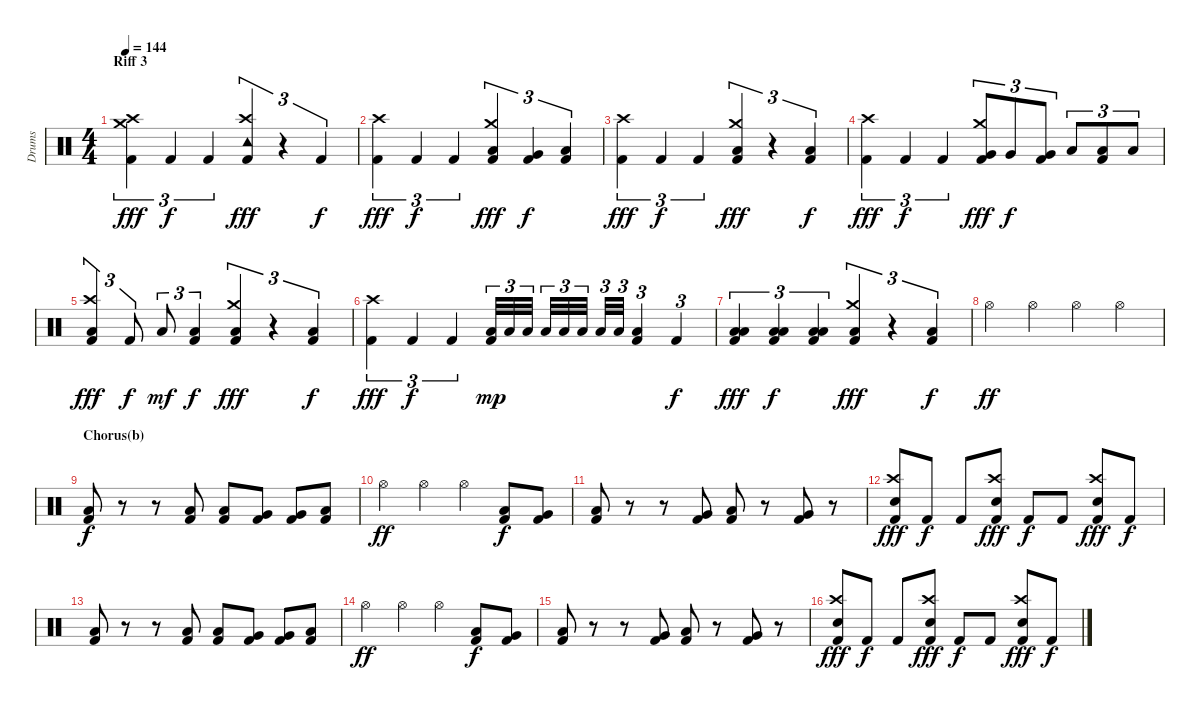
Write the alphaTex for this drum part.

\track ("Drums" "Drums") {instrument percussion}
\staff {score}
\articulation defaults
\ts (4 4)
\section ("" "Riff 3")
\tempo 144
\clef neutral
\ks c
("Kick (hit) 2" "Crash medium (hit)" "Crash high (hit)").4{tu (3 2) dy fff} "Kick (hit) 2".4{tu (3 2) dy f} "Kick (hit) 2".4{tu (3 2)} ("Kick (hit) 2" "Tambourine (hit)" "Crash high (hit)").4{tu (3 2) dy fff} r.4{tu (3 2)} "Kick (hit) 2".4{tu (3 2) dy f} |
("Kick (hit) 2" "Crash high (hit)").4{tu (3 2) dy fff} "Kick (hit) 2".4{tu (3 2) dy f} "Kick (hit) 2".4{tu (3 2)} ("Kick (hit) 2" "Low Tom (hit)" "Crash medium (hit)").4{tu (3 2) dy fff} ("Kick (hit) 2" "Very Low Tom (hit)").4{tu (3 2) dy f} ("Kick (hit) 2" "Low Floor Tom (hit)").4{tu (3 2)} |
("Kick (hit) 2" "Crash high (hit)").4{tu (3 2) dy fff} "Kick (hit) 2".4{tu (3 2) dy f} "Kick (hit) 2".4{tu (3 2)} ("Kick (hit) 2" "Low Floor Tom (hit)" "Crash medium (hit)").4{tu (3 2) dy fff} r.4{tu (3 2)} ("Kick (hit) 2" "Low Tom (hit)").4{tu (3 2) dy f} |
("Kick (hit) 2" "Crash high (hit)").4{tu (3 2) dy fff} "Kick (hit) 2".4{tu (3 2) dy f} "Kick (hit) 2".4{tu (3 2)} ("Kick (hit) 2" "Very Low Tom (hit)" "Crash medium (hit)").8{tu (3 2) dy fff} "Very Low Tom (hit)".8{tu (3 2) dy f} ("Kick (hit) 2" "Very Low Tom (hit)").8{tu (3 2)} "Low Tom (hit)".8{tu (3 2)} ("Kick (hit) 2" "Low Tom (hit)").8{tu (3 2)} "Low Tom (hit)".8{tu (3 2)} |
("Kick (hit) 2" "Low Floor Tom (hit)" "Crash high (hit)").4{tu (3 2) dy fff} "Kick (hit) 2".8{tu (3 2) dy f} "Low Tom (hit)".8{tu (3 2) dy mf} ("Kick (hit) 2" "Low Tom (hit)").4{tu (3 2) dy f} ("Kick (hit) 2" "Low Tom (hit)" "Crash medium (hit)").4{tu (3 2) dy fff} r.4{tu (3 2)} ("Kick (hit) 2" "Low Floor Tom (hit)").4{tu (3 2) dy f} |
("Kick (hit) 2" "Crash high (hit)").4{tu (3 2) dy fff} "Kick (hit) 2".4{tu (3 2) dy f} "Kick (hit) 2".4{tu (3 2)} ("Kick (hit) 2" "Low Tom (hit)").32{tu (3 2) dy mp} "Low Tom (hit)".32{tu (3 2)} "Low Tom (hit)".32{tu (3 2)} "Low Tom (hit)".32{tu (3 2)} "Low Tom (hit)".32{tu (3 2)} "Low Tom (hit)".32{tu (3 2)} "Low Tom (hit)".32{tu (3 2)} "Low Tom (hit)".32{tu (3 2)} ("Kick (hit) 2" "Low Tom (hit)").4{tu (3 2)} "Kick (hit) 2".4{tu (3 2) dy f} |
("Kick (hit) 2" "Low Floor Tom (hit)" "Low Tom (hit)").4{tu (3 2) dy fff} ("Kick (hit) 2" "Low Floor Tom (hit)" "Low Tom (hit)").4{tu (3 2) dy f} ("Kick (hit) 2" "Low Floor Tom (hit)" "Low Tom (hit)").4{tu (3 2)} ("Kick (hit) 2" "Low Floor Tom (hit)" "Crash medium (hit)").4{tu (3 2) dy fff} r.4{tu (3 2)} ("Kick (hit) 2" "Low Tom (hit)").4{tu (3 2) dy f} |
"Hi-Hat (open)".4{dy ff} "Hi-Hat (open)".4 "Hi-Hat (open)".4 "Hi-Hat (open)".4 |
\section ("" "Chorus(b)")
("Kick (hit) 2" "Low Tom (hit)").8{dy f} r.8 r.8 ("Kick (hit) 2" "Low Tom (hit)").8 ("Kick (hit) 2" "Low Tom (hit)").8 ("Kick (hit) 2" "Very Low Tom (hit)").8 ("Kick (hit) 2" "Very Low Tom (hit)").8 ("Kick (hit) 2" "Low Floor Tom (hit)").8 |
"Hi-Hat (open)".4{dy ff} "Hi-Hat (open)".4 "Hi-Hat (open)".4 ("Kick (hit) 2" "Low Tom (hit)").8{dy f} ("Kick (hit) 2" "Very Low Tom (hit)").8 |
("Kick (hit) 2" "Low Floor Tom (hit)").8 r.8 r.8 ("Kick (hit) 2" "Very Low Tom (hit)").8 ("Kick (hit) 2" "Low Tom (hit)").8 r.8 ("Kick (hit) 2" "Very Low Tom (hit)").8 r.8 |
("Kick (hit) 2" "Electric Snare (hit)" "Crash high (hit)").8{dy fff} "Kick (hit) 2".8{dy f} "Kick (hit) 2".8 ("Kick (hit) 2" "Electric Snare (hit)" "Crash high (hit)").8{dy fff} "Kick (hit) 2".8{dy f} "Kick (hit) 2".8 ("Kick (hit) 2" "Electric Snare (hit)" "Crash high (hit)").8{dy fff} "Kick (hit) 2".8{dy f} |
("Kick (hit) 2" "Low Tom (hit)").8 r.8 r.8 ("Kick (hit) 2" "Low Tom (hit)").8 ("Kick (hit) 2" "Low Tom (hit)").8 ("Kick (hit) 2" "Very Low Tom (hit)").8 ("Kick (hit) 2" "Very Low Tom (hit)").8 ("Kick (hit) 2" "Low Floor Tom (hit)").8 |
"Hi-Hat (open)".4{dy ff} "Hi-Hat (open)".4 "Hi-Hat (open)".4 ("Kick (hit) 2" "Low Tom (hit)").8{dy f} ("Kick (hit) 2" "Very Low Tom (hit)").8 |
("Kick (hit) 2" "Low Floor Tom (hit)").8 r.8 r.8 ("Kick (hit) 2" "Very Low Tom (hit)").8 ("Kick (hit) 2" "Low Tom (hit)").8 r.8 ("Kick (hit) 2" "Very Low Tom (hit)").8 r.8 |
("Kick (hit) 2" "Electric Snare (hit)" "Crash high (hit)").8{dy fff} "Kick (hit) 2".8{dy f} "Kick (hit) 2".8 ("Kick (hit) 2" "Electric Snare (hit)" "Crash high (hit)").8{dy fff} "Kick (hit) 2".8{dy f} "Kick (hit) 2".8 ("Kick (hit) 2" "Electric Snare (hit)" "Crash high (hit)").8{dy fff} "Kick (hit) 2".8{dy f}
